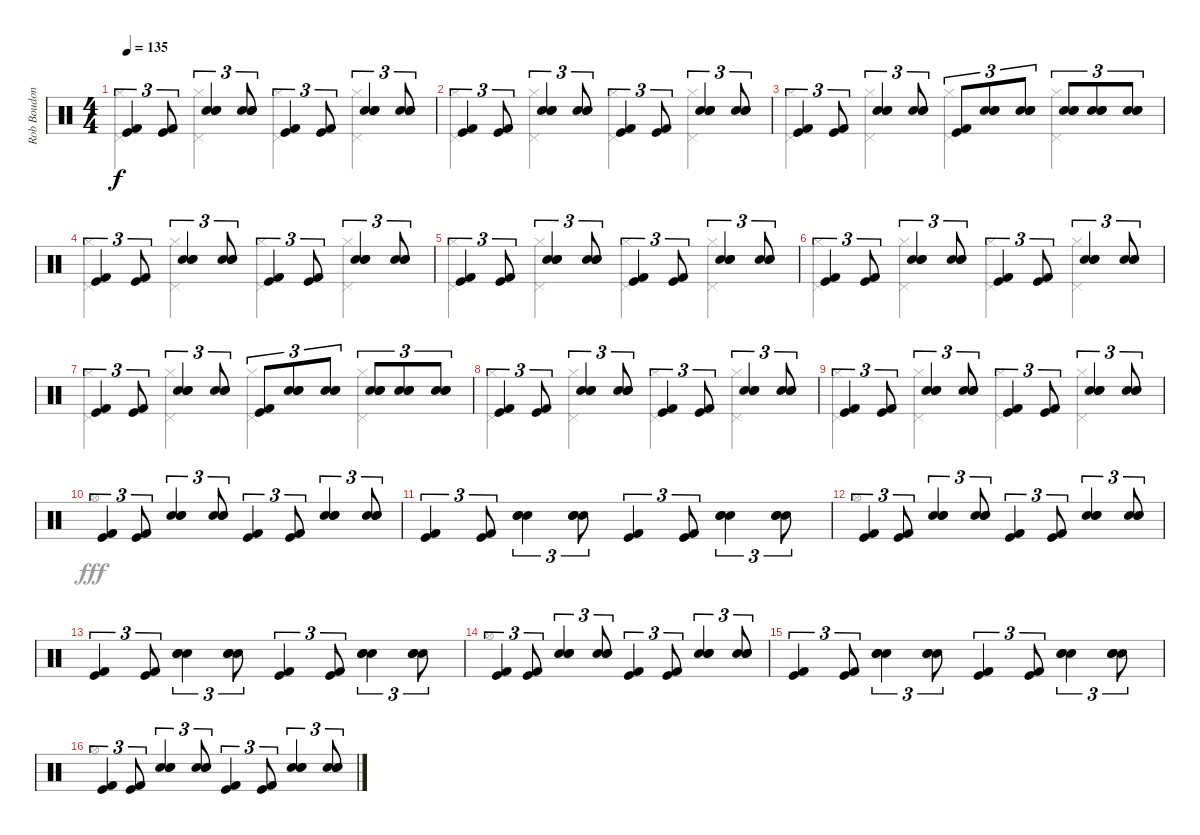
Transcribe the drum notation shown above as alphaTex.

\track ("Rob Boudon [Drums]" "Rob Boudon") {instrument percussion}
\staff {score}
\articulation defaults
\voice
\ts (4 4)
\tempo 135
\clef neutral
\ks c
("Kick (hit) 2" "Kick (hit)").4{tu (3 2) dy f} ("Kick (hit) 2" "Kick (hit)").8{tu (3 2)} ("Hand Clap (hit)" "Snare (hit) 2" "Electric Snare (hit)").4{tu (3 2)} ("Hand Clap (hit)" "Snare (hit) 2" "Electric Snare (hit)").8{tu (3 2)} ("Kick (hit) 2" "Kick (hit)").4{tu (3 2)} ("Kick (hit) 2" "Kick (hit)").8{tu (3 2)} ("Hand Clap (hit)" "Snare (hit) 2" "Electric Snare (hit)").4{tu (3 2)} ("Hand Clap (hit)" "Snare (hit) 2" "Electric Snare (hit)").8{tu (3 2)} |
("Kick (hit) 2" "Kick (hit)").4{tu (3 2)} ("Kick (hit) 2" "Kick (hit)").8{tu (3 2)} ("Hand Clap (hit)" "Snare (hit) 2" "Electric Snare (hit)").4{tu (3 2)} ("Hand Clap (hit)" "Snare (hit) 2" "Electric Snare (hit)").8{tu (3 2)} ("Kick (hit) 2" "Kick (hit)").4{tu (3 2)} ("Kick (hit) 2" "Kick (hit)").8{tu (3 2)} ("Hand Clap (hit)" "Snare (hit) 2" "Electric Snare (hit)").4{tu (3 2)} ("Hand Clap (hit)" "Snare (hit) 2" "Electric Snare (hit)").8{tu (3 2)} |
("Kick (hit) 2" "Kick (hit)").4{tu (3 2)} ("Kick (hit) 2" "Kick (hit)").8{tu (3 2)} ("Hand Clap (hit)" "Snare (hit) 2" "Electric Snare (hit)").4{tu (3 2)} ("Hand Clap (hit)" "Snare (hit) 2" "Electric Snare (hit)").8{tu (3 2)} ("Kick (hit) 2" "Kick (hit)").8{tu (3 2)} ("Hand Clap (hit)" "Snare (hit) 2" "Electric Snare (hit)").8{tu (3 2)} ("Hand Clap (hit)" "Snare (hit) 2" "Electric Snare (hit)").8{tu (3 2)} ("Hand Clap (hit)" "Snare (hit) 2" "Electric Snare (hit)").8{tu (3 2)} ("Hand Clap (hit)" "Snare (hit) 2" "Electric Snare (hit)").8{tu (3 2)} ("Hand Clap (hit)" "Snare (hit) 2" "Electric Snare (hit)").8{tu (3 2)} |
("Kick (hit) 2" "Kick (hit)").4{tu (3 2)} ("Kick (hit) 2" "Kick (hit)").8{tu (3 2)} ("Hand Clap (hit)" "Snare (hit) 2" "Electric Snare (hit)").4{tu (3 2)} ("Hand Clap (hit)" "Snare (hit) 2" "Electric Snare (hit)").8{tu (3 2)} ("Kick (hit) 2" "Kick (hit)").4{tu (3 2)} ("Kick (hit) 2" "Kick (hit)").8{tu (3 2)} ("Hand Clap (hit)" "Snare (hit) 2" "Electric Snare (hit)").4{tu (3 2)} ("Hand Clap (hit)" "Snare (hit) 2" "Electric Snare (hit)").8{tu (3 2)} |
("Kick (hit) 2" "Kick (hit)").4{tu (3 2)} ("Kick (hit) 2" "Kick (hit)").8{tu (3 2)} ("Hand Clap (hit)" "Snare (hit) 2" "Electric Snare (hit)").4{tu (3 2)} ("Hand Clap (hit)" "Snare (hit) 2" "Electric Snare (hit)").8{tu (3 2)} ("Kick (hit) 2" "Kick (hit)").4{tu (3 2)} ("Kick (hit) 2" "Kick (hit)").8{tu (3 2)} ("Hand Clap (hit)" "Snare (hit) 2" "Electric Snare (hit)").4{tu (3 2)} ("Hand Clap (hit)" "Snare (hit) 2" "Electric Snare (hit)").8{tu (3 2)} |
("Kick (hit) 2" "Kick (hit)").4{tu (3 2)} ("Kick (hit) 2" "Kick (hit)").8{tu (3 2)} ("Hand Clap (hit)" "Snare (hit) 2" "Electric Snare (hit)").4{tu (3 2)} ("Hand Clap (hit)" "Snare (hit) 2" "Electric Snare (hit)").8{tu (3 2)} ("Kick (hit) 2" "Kick (hit)").4{tu (3 2)} ("Kick (hit) 2" "Kick (hit)").8{tu (3 2)} ("Hand Clap (hit)" "Snare (hit) 2" "Electric Snare (hit)").4{tu (3 2)} ("Hand Clap (hit)" "Snare (hit) 2" "Electric Snare (hit)").8{tu (3 2)} |
("Kick (hit) 2" "Kick (hit)").4{tu (3 2)} ("Kick (hit) 2" "Kick (hit)").8{tu (3 2)} ("Hand Clap (hit)" "Snare (hit) 2" "Electric Snare (hit)").4{tu (3 2)} ("Hand Clap (hit)" "Snare (hit) 2" "Electric Snare (hit)").8{tu (3 2)} ("Kick (hit) 2" "Kick (hit)").8{tu (3 2)} ("Hand Clap (hit)" "Snare (hit) 2" "Electric Snare (hit)").8{tu (3 2)} ("Hand Clap (hit)" "Snare (hit) 2" "Electric Snare (hit)").8{tu (3 2)} ("Hand Clap (hit)" "Snare (hit) 2" "Electric Snare (hit)").8{tu (3 2)} ("Hand Clap (hit)" "Snare (hit) 2" "Electric Snare (hit)").8{tu (3 2)} ("Hand Clap (hit)" "Snare (hit) 2" "Electric Snare (hit)").8{tu (3 2)} |
("Kick (hit) 2" "Kick (hit)").4{tu (3 2)} ("Kick (hit) 2" "Kick (hit)").8{tu (3 2)} ("Hand Clap (hit)" "Snare (hit) 2" "Electric Snare (hit)").4{tu (3 2)} ("Hand Clap (hit)" "Snare (hit) 2" "Electric Snare (hit)").8{tu (3 2)} ("Kick (hit) 2" "Kick (hit)").4{tu (3 2)} ("Kick (hit) 2" "Kick (hit)").8{tu (3 2)} ("Hand Clap (hit)" "Snare (hit) 2" "Electric Snare (hit)").4{tu (3 2)} ("Hand Clap (hit)" "Snare (hit) 2" "Electric Snare (hit)").8{tu (3 2)} |
("Kick (hit) 2" "Kick (hit)").4{tu (3 2)} ("Kick (hit) 2" "Kick (hit)").8{tu (3 2)} ("Hand Clap (hit)" "Snare (hit) 2" "Electric Snare (hit)").4{tu (3 2)} ("Hand Clap (hit)" "Snare (hit) 2" "Electric Snare (hit)").8{tu (3 2)} ("Kick (hit) 2" "Kick (hit)").4{tu (3 2)} ("Kick (hit) 2" "Kick (hit)").8{tu (3 2)} ("Hand Clap (hit)" "Snare (hit) 2" "Electric Snare (hit)").4{tu (3 2)} ("Hand Clap (hit)" "Snare (hit) 2" "Electric Snare (hit)").8{tu (3 2)} |
("Kick (hit) 2" "Kick (hit)").4{tu (3 2)} ("Kick (hit) 2" "Kick (hit)").8{tu (3 2)} ("Hand Clap (hit)" "Snare (hit) 2" "Electric Snare (hit)").4{tu (3 2)} ("Hand Clap (hit)" "Snare (hit) 2" "Electric Snare (hit)").8{tu (3 2)} ("Kick (hit) 2" "Kick (hit)").4{tu (3 2)} ("Kick (hit) 2" "Kick (hit)").8{tu (3 2)} ("Hand Clap (hit)" "Snare (hit) 2" "Electric Snare (hit)").4{tu (3 2)} ("Hand Clap (hit)" "Snare (hit) 2" "Electric Snare (hit)").8{tu (3 2)} |
("Kick (hit) 2" "Kick (hit)").4{tu (3 2)} ("Kick (hit) 2" "Kick (hit)").8{tu (3 2)} ("Hand Clap (hit)" "Snare (hit) 2" "Electric Snare (hit)").4{tu (3 2)} ("Hand Clap (hit)" "Snare (hit) 2" "Electric Snare (hit)").8{tu (3 2)} ("Kick (hit) 2" "Kick (hit)").4{tu (3 2)} ("Kick (hit) 2" "Kick (hit)").8{tu (3 2)} ("Hand Clap (hit)" "Snare (hit) 2" "Electric Snare (hit)").4{tu (3 2)} ("Hand Clap (hit)" "Snare (hit) 2" "Electric Snare (hit)").8{tu (3 2)} |
("Kick (hit) 2" "Kick (hit)").4{tu (3 2)} ("Kick (hit) 2" "Kick (hit)").8{tu (3 2)} ("Hand Clap (hit)" "Snare (hit) 2" "Electric Snare (hit)").4{tu (3 2)} ("Hand Clap (hit)" "Snare (hit) 2" "Electric Snare (hit)").8{tu (3 2)} ("Kick (hit) 2" "Kick (hit)").4{tu (3 2)} ("Kick (hit) 2" "Kick (hit)").8{tu (3 2)} ("Hand Clap (hit)" "Snare (hit) 2" "Electric Snare (hit)").4{tu (3 2)} ("Hand Clap (hit)" "Snare (hit) 2" "Electric Snare (hit)").8{tu (3 2)} |
("Kick (hit) 2" "Kick (hit)").4{tu (3 2)} ("Kick (hit) 2" "Kick (hit)").8{tu (3 2)} ("Hand Clap (hit)" "Snare (hit) 2" "Electric Snare (hit)").4{tu (3 2)} ("Hand Clap (hit)" "Snare (hit) 2" "Electric Snare (hit)").8{tu (3 2)} ("Kick (hit) 2" "Kick (hit)").4{tu (3 2)} ("Kick (hit) 2" "Kick (hit)").8{tu (3 2)} ("Hand Clap (hit)" "Snare (hit) 2" "Electric Snare (hit)").4{tu (3 2)} ("Hand Clap (hit)" "Snare (hit) 2" "Electric Snare (hit)").8{tu (3 2)} |
("Kick (hit) 2" "Kick (hit)").4{tu (3 2)} ("Kick (hit) 2" "Kick (hit)").8{tu (3 2)} ("Hand Clap (hit)" "Snare (hit) 2" "Electric Snare (hit)").4{tu (3 2)} ("Hand Clap (hit)" "Snare (hit) 2" "Electric Snare (hit)").8{tu (3 2)} ("Kick (hit) 2" "Kick (hit)").4{tu (3 2)} ("Kick (hit) 2" "Kick (hit)").8{tu (3 2)} ("Hand Clap (hit)" "Snare (hit) 2" "Electric Snare (hit)").4{tu (3 2)} ("Hand Clap (hit)" "Snare (hit) 2" "Electric Snare (hit)").8{tu (3 2)} |
("Kick (hit) 2" "Kick (hit)").4{tu (3 2)} ("Kick (hit) 2" "Kick (hit)").8{tu (3 2)} ("Hand Clap (hit)" "Snare (hit) 2" "Electric Snare (hit)").4{tu (3 2)} ("Hand Clap (hit)" "Snare (hit) 2" "Electric Snare (hit)").8{tu (3 2)} ("Kick (hit) 2" "Kick (hit)").4{tu (3 2)} ("Kick (hit) 2" "Kick (hit)").8{tu (3 2)} ("Hand Clap (hit)" "Snare (hit) 2" "Electric Snare (hit)").4{tu (3 2)} ("Hand Clap (hit)" "Snare (hit) 2" "Electric Snare (hit)").8{tu (3 2)} |
("Kick (hit) 2" "Kick (hit)").4{tu (3 2)} ("Kick (hit) 2" "Kick (hit)").8{tu (3 2)} ("Hand Clap (hit)" "Snare (hit) 2" "Electric Snare (hit)").4{tu (3 2)} ("Hand Clap (hit)" "Snare (hit) 2" "Electric Snare (hit)").8{tu (3 2)} ("Kick (hit) 2" "Kick (hit)").4{tu (3 2)} ("Kick (hit) 2" "Kick (hit)").8{tu (3 2)} ("Hand Clap (hit)" "Snare (hit) 2" "Electric Snare (hit)").4{tu (3 2)} ("Hand Clap (hit)" "Snare (hit) 2" "Electric Snare (hit)").8{tu (3 2)}
\voice
\clef neutral
\ottava regular
\simile none
\ks c
("Hi-Hat (closed)" "Pedal Hi-Hat (hit)").4{dy f} ("Hi-Hat (closed)" "Pedal Hi-Hat (hit)").4 ("Hi-Hat (closed)" "Pedal Hi-Hat (hit)").4 ("Hi-Hat (closed)" "Pedal Hi-Hat (hit)").4 |
("Hi-Hat (closed)" "Pedal Hi-Hat (hit)").4 ("Hi-Hat (closed)" "Pedal Hi-Hat (hit)").4 ("Hi-Hat (closed)" "Pedal Hi-Hat (hit)").4 ("Hi-Hat (closed)" "Pedal Hi-Hat (hit)").4 |
("Hi-Hat (closed)" "Pedal Hi-Hat (hit)").4 ("Hi-Hat (closed)" "Pedal Hi-Hat (hit)").4 ("Hi-Hat (closed)" "Pedal Hi-Hat (hit)").4 ("Hi-Hat (closed)" "Pedal Hi-Hat (hit)").4 |
("Hi-Hat (closed)" "Pedal Hi-Hat (hit)").4 ("Hi-Hat (closed)" "Pedal Hi-Hat (hit)").4 ("Hi-Hat (closed)" "Pedal Hi-Hat (hit)").4 ("Hi-Hat (closed)" "Pedal Hi-Hat (hit)").4 |
("Hi-Hat (closed)" "Pedal Hi-Hat (hit)").4 ("Hi-Hat (closed)" "Pedal Hi-Hat (hit)").4 ("Hi-Hat (closed)" "Pedal Hi-Hat (hit)").4 ("Hi-Hat (closed)" "Pedal Hi-Hat (hit)").4 |
("Hi-Hat (closed)" "Pedal Hi-Hat (hit)").4 ("Hi-Hat (closed)" "Pedal Hi-Hat (hit)").4 ("Hi-Hat (closed)" "Pedal Hi-Hat (hit)").4 ("Hi-Hat (closed)" "Pedal Hi-Hat (hit)").4 |
("Hi-Hat (closed)" "Pedal Hi-Hat (hit)").4 ("Hi-Hat (closed)" "Pedal Hi-Hat (hit)").4 ("Hi-Hat (closed)" "Pedal Hi-Hat (hit)").4 ("Hi-Hat (closed)" "Pedal Hi-Hat (hit)").4 |
("Hi-Hat (closed)" "Pedal Hi-Hat (hit)").4 ("Hi-Hat (closed)" "Pedal Hi-Hat (hit)").4 ("Hi-Hat (closed)" "Pedal Hi-Hat (hit)").4 ("Hi-Hat (closed)" "Pedal Hi-Hat (hit)").4 |
("Hi-Hat (closed)" "Pedal Hi-Hat (hit)").4 ("Hi-Hat (closed)" "Pedal Hi-Hat (hit)").4 ("Hi-Hat (closed)" "Pedal Hi-Hat (hit)").4 ("Hi-Hat (closed)" "Pedal Hi-Hat (hit)").4 |
"Hi-Hat (open)".1{dy fff} |
|
"Hi-Hat (open)".1 |
|
"Hi-Hat (open)".1 |
|
"Hi-Hat (open)".1
